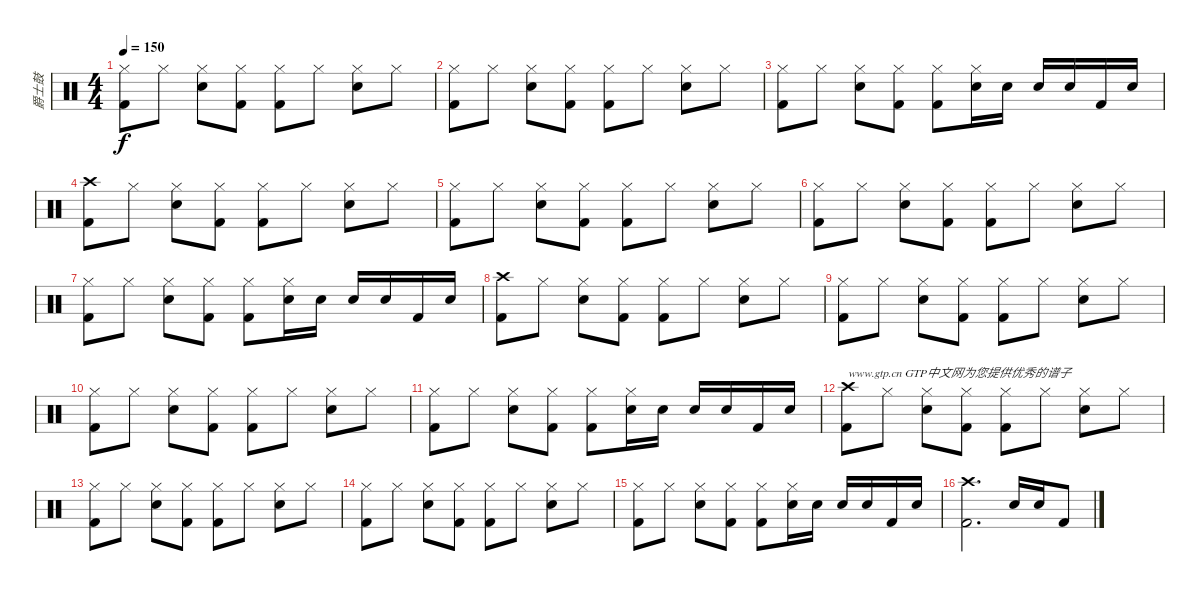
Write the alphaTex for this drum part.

\track ("爵士鼓" "爵士鼓") {instrument percussion}
\staff {score}
\articulation defaults
\ts (4 4)
\tempo 150
\clef neutral
\ks c
("Hi-Hat (closed)" "Kick (hit) 2").8{dy f} "Hi-Hat (closed)".8 ("Hi-Hat (closed)" "Electric Snare (hit)").8 ("Hi-Hat (closed)" "Kick (hit) 2").8 ("Hi-Hat (closed)" "Kick (hit) 2").8 "Hi-Hat (closed)".8 ("Hi-Hat (closed)" "Electric Snare (hit)").8 "Hi-Hat (closed)".8 |
("Hi-Hat (closed)" "Kick (hit) 2").8 "Hi-Hat (closed)".8 ("Hi-Hat (closed)" "Electric Snare (hit)").8 ("Hi-Hat (closed)" "Kick (hit) 2").8 ("Hi-Hat (closed)" "Kick (hit) 2").8 "Hi-Hat (closed)".8 ("Hi-Hat (closed)" "Electric Snare (hit)").8 "Hi-Hat (closed)".8 |
("Hi-Hat (closed)" "Kick (hit) 2").8 "Hi-Hat (closed)".8 ("Hi-Hat (closed)" "Electric Snare (hit)").8 ("Hi-Hat (closed)" "Kick (hit) 2").8 ("Hi-Hat (closed)" "Kick (hit) 2").8 ("Hi-Hat (closed)" "Electric Snare (hit)").16 "Electric Snare (hit)".16 "Electric Snare (hit)".16 "Electric Snare (hit)".16 "Kick (hit) 2".16 "Electric Snare (hit)".16 |
("Crash high (hit)" "Kick (hit) 2").8 "Hi-Hat (closed)".8 ("Hi-Hat (closed)" "Electric Snare (hit)").8 ("Hi-Hat (closed)" "Kick (hit) 2").8 ("Hi-Hat (closed)" "Kick (hit) 2").8 "Hi-Hat (closed)".8 ("Hi-Hat (closed)" "Electric Snare (hit)").8 "Hi-Hat (closed)".8 |
("Hi-Hat (closed)" "Kick (hit) 2").8 "Hi-Hat (closed)".8 ("Hi-Hat (closed)" "Electric Snare (hit)").8 ("Hi-Hat (closed)" "Kick (hit) 2").8 ("Hi-Hat (closed)" "Kick (hit) 2").8 "Hi-Hat (closed)".8 ("Hi-Hat (closed)" "Electric Snare (hit)").8 "Hi-Hat (closed)".8 |
("Hi-Hat (closed)" "Kick (hit) 2").8 "Hi-Hat (closed)".8 ("Hi-Hat (closed)" "Electric Snare (hit)").8 ("Hi-Hat (closed)" "Kick (hit) 2").8 ("Hi-Hat (closed)" "Kick (hit) 2").8 "Hi-Hat (closed)".8 ("Hi-Hat (closed)" "Electric Snare (hit)").8 "Hi-Hat (closed)".8 |
("Hi-Hat (closed)" "Kick (hit) 2").8 "Hi-Hat (closed)".8 ("Hi-Hat (closed)" "Electric Snare (hit)").8 ("Hi-Hat (closed)" "Kick (hit) 2").8 ("Hi-Hat (closed)" "Kick (hit) 2").8 ("Hi-Hat (closed)" "Electric Snare (hit)").16 "Electric Snare (hit)".16 "Electric Snare (hit)".16 "Electric Snare (hit)".16 "Kick (hit) 2".16 "Electric Snare (hit)".16 |
("Crash high (hit)" "Kick (hit) 2").8 "Hi-Hat (closed)".8 ("Hi-Hat (closed)" "Electric Snare (hit)").8 ("Hi-Hat (closed)" "Kick (hit) 2").8 ("Hi-Hat (closed)" "Kick (hit) 2").8 "Hi-Hat (closed)".8 ("Hi-Hat (closed)" "Electric Snare (hit)").8 "Hi-Hat (closed)".8 |
("Hi-Hat (closed)" "Kick (hit) 2").8 "Hi-Hat (closed)".8 ("Hi-Hat (closed)" "Electric Snare (hit)").8 ("Hi-Hat (closed)" "Kick (hit) 2").8 ("Hi-Hat (closed)" "Kick (hit) 2").8 "Hi-Hat (closed)".8 ("Hi-Hat (closed)" "Electric Snare (hit)").8 "Hi-Hat (closed)".8 |
("Hi-Hat (closed)" "Kick (hit) 2").8 "Hi-Hat (closed)".8 ("Hi-Hat (closed)" "Electric Snare (hit)").8 ("Hi-Hat (closed)" "Kick (hit) 2").8 ("Hi-Hat (closed)" "Kick (hit) 2").8 "Hi-Hat (closed)".8 ("Hi-Hat (closed)" "Electric Snare (hit)").8 "Hi-Hat (closed)".8 |
("Hi-Hat (closed)" "Kick (hit) 2").8 "Hi-Hat (closed)".8 ("Hi-Hat (closed)" "Electric Snare (hit)").8 ("Hi-Hat (closed)" "Kick (hit) 2").8 ("Hi-Hat (closed)" "Kick (hit) 2").8 ("Hi-Hat (closed)" "Electric Snare (hit)").16 "Electric Snare (hit)".16 "Electric Snare (hit)".16 "Electric Snare (hit)".16 "Kick (hit) 2".16 "Electric Snare (hit)".16 |
("Crash high (hit)" "Kick (hit) 2").8{txt "www.gtp.cn GTP中文网为您提供优秀的谱子"} "Hi-Hat (closed)".8 ("Hi-Hat (closed)" "Electric Snare (hit)").8 ("Hi-Hat (closed)" "Kick (hit) 2").8 ("Hi-Hat (closed)" "Kick (hit) 2").8 "Hi-Hat (closed)".8 ("Hi-Hat (closed)" "Electric Snare (hit)").8 "Hi-Hat (closed)".8 |
("Hi-Hat (closed)" "Kick (hit) 2").8 "Hi-Hat (closed)".8 ("Hi-Hat (closed)" "Electric Snare (hit)").8 ("Hi-Hat (closed)" "Kick (hit) 2").8 ("Hi-Hat (closed)" "Kick (hit) 2").8 "Hi-Hat (closed)".8 ("Hi-Hat (closed)" "Electric Snare (hit)").8 "Hi-Hat (closed)".8 |
("Hi-Hat (closed)" "Kick (hit) 2").8 "Hi-Hat (closed)".8 ("Hi-Hat (closed)" "Electric Snare (hit)").8 ("Hi-Hat (closed)" "Kick (hit) 2").8 ("Hi-Hat (closed)" "Kick (hit) 2").8 "Hi-Hat (closed)".8 ("Hi-Hat (closed)" "Electric Snare (hit)").8 "Hi-Hat (closed)".8 |
("Hi-Hat (closed)" "Kick (hit) 2").8 "Hi-Hat (closed)".8 ("Hi-Hat (closed)" "Electric Snare (hit)").8 ("Hi-Hat (closed)" "Kick (hit) 2").8 ("Hi-Hat (closed)" "Kick (hit) 2").8 ("Hi-Hat (closed)" "Electric Snare (hit)").16 "Electric Snare (hit)".16 "Electric Snare (hit)".16 "Electric Snare (hit)".16 "Kick (hit) 2".16 "Electric Snare (hit)".16 |
("Crash high (hit)" "Kick (hit) 2").2{d} "Electric Snare (hit)".16 "Electric Snare (hit)".16 "Kick (hit) 2".8
